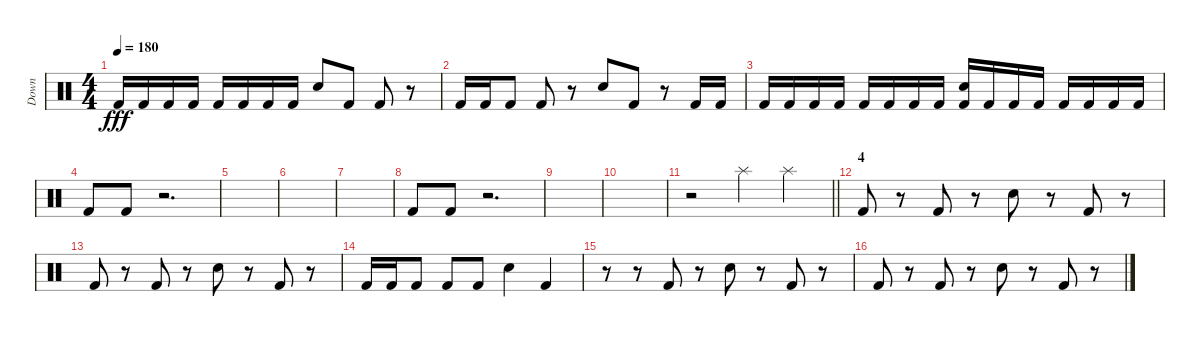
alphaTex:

\track ("Down" "Down") {instrument percussion}
\staff {score}
\articulation defaults
\ts (4 4)
\tempo 180
\clef neutral
\ks c "Kick (hit) 2".16{dy fff} "Kick (hit) 2".16 "Kick (hit) 2".16 "Kick (hit) 2".16 "Kick (hit) 2".16 "Kick (hit) 2".16 "Kick (hit) 2".16 "Kick (hit) 2".16 "Electric Snare (hit)".8 "Kick (hit) 2".8 "Kick (hit) 2".8
r.8 |
"Kick (hit) 2".16 "Kick (hit) 2".16 "Kick (hit) 2".8 "Kick (hit) 2".8 r.8 "Electric Snare (hit)".8 "Kick (hit) 2".8 r.8 "Kick (hit) 2".16 "Kick (hit) 2".16 |
"Kick (hit) 2".16 "Kick (hit) 2".16 "Kick (hit) 2".16 "Kick (hit) 2".16 "Kick (hit) 2".16 "Kick (hit) 2".16 "Kick (hit) 2".16 "Kick (hit) 2".16 ("Electric Snare (hit)" "Kick (hit) 2").16 "Kick (hit) 2".16 "Kick (hit) 2".16 "Kick (hit) 2".16 "Kick (hit) 2".16 "Kick (hit) 2".16 "Kick (hit) 2".16 "Kick (hit) 2".16 |
"Kick (hit) 2".8 "Kick (hit) 2".8 r.2{d} |
|
|
|
"Kick (hit) 2".8 "Kick (hit) 2".8 r.2{d} |
|
|
\barLineRight lightlight
r.2 "Splash (hit)".4 "Splash (hit)".4 |
\section ("" "4")
"Kick (hit) 2".8 r.8 "Kick (hit) 2".8 r.8 "Electric Snare (hit)".8 r.8 "Kick (hit) 2".8 r.8 |
"Kick (hit) 2".8 r.8 "Kick (hit) 2".8 r.8 "Electric Snare (hit)".8 r.8 "Kick (hit) 2".8 r.8 |
"Kick (hit) 2".16 "Kick (hit) 2".16 "Kick (hit) 2".8 "Kick (hit) 2".8 "Kick (hit) 2".8 "Electric Snare (hit)".4 "Kick (hit) 2".4 |
r.8 r.8 "Kick (hit) 2".8 r.8 "Electric Snare (hit)".8 r.8 "Kick (hit) 2".8 r.8 |
"Kick (hit) 2".8 r.8 "Kick (hit) 2".8 r.8 "Electric Snare (hit)".8 r.8 "Kick (hit) 2".8 r.8
